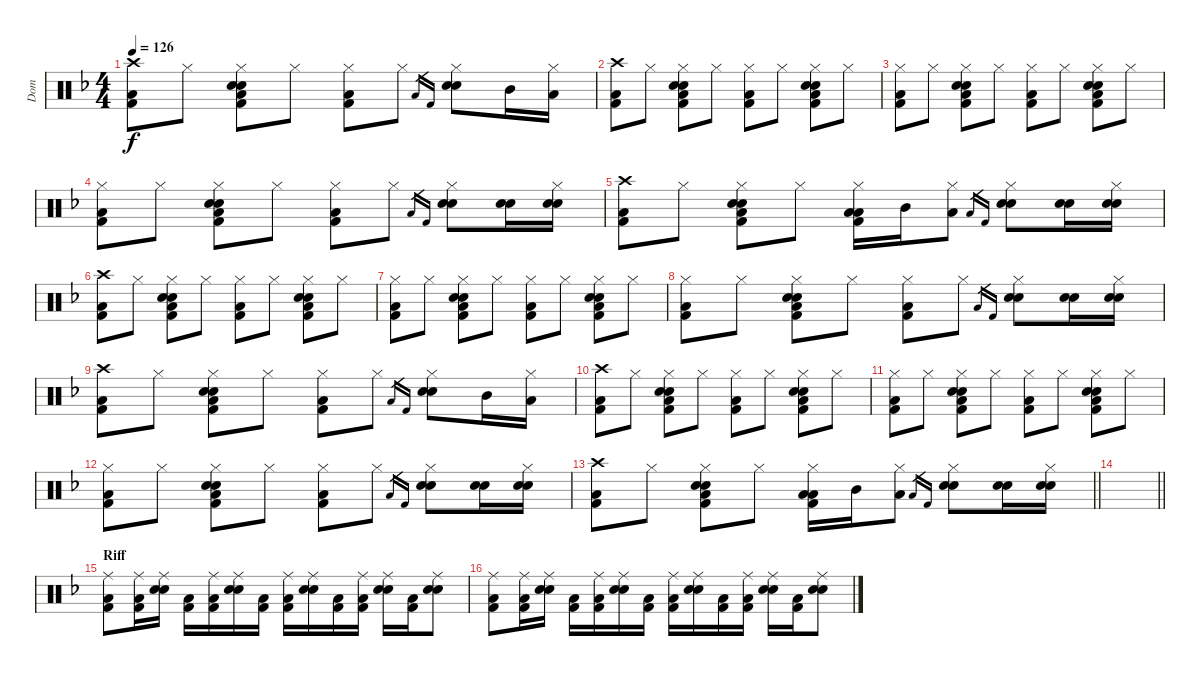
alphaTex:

\track ("Dom" "Dom") {instrument percussion}
\staff {score}
\articulation defaults
\ts (4 4)
\tempo 126
\clef neutral
\ks f
("Crash high (hit)" "Low Floor Tom (hit)" "Kick (hit) 2").8{dy f} "Hi-Hat (closed)".8 ("Hi-Hat (closed)" "Snare (hit) 2" "Electric Snare (hit)" "Low Floor Tom (hit)" "Kick (hit) 2").8 "Hi-Hat (closed)".8 ("Hi-Hat (closed)" "Low Floor Tom (hit)" "Kick (hit) 2").8 "Hi-Hat (closed)".8 "Low Floor Tom (hit)".16{gr} "Kick (hit) 2".16{gr} ("Hi-Hat (closed)" "Snare (hit) 2" "Electric Snare (hit)").8 "Mid Tom (hit)".16 ("Hi-Hat (closed)" "Low Tom (hit)").16 |
("Crash high (hit)" "Low Floor Tom (hit)" "Kick (hit) 2").8 "Hi-Hat (closed)".8 ("Hi-Hat (closed)" "Snare (hit) 2" "Electric Snare (hit)" "Low Floor Tom (hit)" "Kick (hit) 2").8 "Hi-Hat (closed)".8 ("Hi-Hat (closed)" "Low Floor Tom (hit)" "Kick (hit) 2").8 "Hi-Hat (closed)".8 ("Hi-Hat (closed)" "Snare (hit) 2" "Electric Snare (hit)" "Low Floor Tom (hit)" "Kick (hit) 2").8 "Hi-Hat (closed)".8 |
("Hi-Hat (closed)" "Low Floor Tom (hit)" "Kick (hit) 2").8 "Hi-Hat (closed)".8 ("Hi-Hat (closed)" "Snare (hit) 2" "Electric Snare (hit)" "Low Floor Tom (hit)" "Kick (hit) 2").8 "Hi-Hat (closed)".8 ("Hi-Hat (closed)" "Low Floor Tom (hit)" "Kick (hit) 2").8 "Hi-Hat (closed)".8 ("Hi-Hat (closed)" "Snare (hit) 2" "Electric Snare (hit)" "Low Floor Tom (hit)" "Kick (hit) 2").8 "Hi-Hat (closed)".8 |
("Hi-Hat (closed)" "Low Floor Tom (hit)" "Kick (hit) 2").8 "Hi-Hat (closed)".8 ("Hi-Hat (closed)" "Snare (hit) 2" "Electric Snare (hit)" "Low Floor Tom (hit)" "Kick (hit) 2").8 "Hi-Hat (closed)".8 ("Hi-Hat (closed)" "Low Floor Tom (hit)" "Kick (hit) 2").8 "Hi-Hat (closed)".8 "Low Floor Tom (hit)".16{gr} "Kick (hit) 2".16{gr} ("Hi-Hat (closed)" "Snare (hit) 2" "Electric Snare (hit)").8 ("Snare (hit) 2" "Electric Snare (hit)").16 ("Hi-Hat (closed)" "Snare (hit) 2" "Electric Snare (hit)").16 |
("Crash high (hit)" "Low Floor Tom (hit)" "Kick (hit) 2").8 "Hi-Hat (closed)".8 ("Hi-Hat (closed)" "Snare (hit) 2" "Electric Snare (hit)" "Low Floor Tom (hit)" "Kick (hit) 2").8 "Hi-Hat (closed)".8 ("Hi-Hat (closed)" "Low Tom (hit)" "Low Floor Tom (hit)" "Kick (hit) 2").16 "Mid Tom (hit)".16 ("Hi-Hat (closed)" "Low Tom (hit)").8 "Low Floor Tom (hit)".16{gr} "Kick (hit) 2".16{gr} ("Hi-Hat (closed)" "Snare (hit) 2" "Electric Snare (hit)").8 ("Snare (hit) 2" "Electric Snare (hit)").16 ("Hi-Hat (closed)" "Snare (hit) 2" "Electric Snare (hit)").16 |
("Crash high (hit)" "Low Floor Tom (hit)" "Kick (hit) 2").8 "Hi-Hat (closed)".8 ("Hi-Hat (closed)" "Snare (hit) 2" "Electric Snare (hit)" "Low Floor Tom (hit)" "Kick (hit) 2").8 "Hi-Hat (closed)".8 ("Hi-Hat (closed)" "Low Floor Tom (hit)" "Kick (hit) 2").8 "Hi-Hat (closed)".8 ("Hi-Hat (closed)" "Snare (hit) 2" "Electric Snare (hit)" "Low Floor Tom (hit)" "Kick (hit) 2").8 "Hi-Hat (closed)".8 |
("Hi-Hat (closed)" "Low Floor Tom (hit)" "Kick (hit) 2").8 "Hi-Hat (closed)".8 ("Hi-Hat (closed)" "Snare (hit) 2" "Electric Snare (hit)" "Low Floor Tom (hit)" "Kick (hit) 2").8 "Hi-Hat (closed)".8 ("Hi-Hat (closed)" "Low Floor Tom (hit)" "Kick (hit) 2").8 "Hi-Hat (closed)".8 ("Hi-Hat (closed)" "Snare (hit) 2" "Electric Snare (hit)" "Low Floor Tom (hit)" "Kick (hit) 2").8 "Hi-Hat (closed)".8 |
("Hi-Hat (closed)" "Low Floor Tom (hit)" "Kick (hit) 2").8 "Hi-Hat (closed)".8 ("Hi-Hat (closed)" "Snare (hit) 2" "Electric Snare (hit)" "Low Floor Tom (hit)" "Kick (hit) 2").8 "Hi-Hat (closed)".8 ("Hi-Hat (closed)" "Low Floor Tom (hit)" "Kick (hit) 2").8 "Hi-Hat (closed)".8 "Low Floor Tom (hit)".16{gr} "Kick (hit) 2".16{gr} ("Hi-Hat (closed)" "Snare (hit) 2" "Electric Snare (hit)").8 ("Snare (hit) 2" "Electric Snare (hit)").16 ("Hi-Hat (closed)" "Snare (hit) 2" "Electric Snare (hit)").16 |
("Crash high (hit)" "Low Floor Tom (hit)" "Kick (hit) 2").8 "Hi-Hat (closed)".8 ("Hi-Hat (closed)" "Snare (hit) 2" "Electric Snare (hit)" "Low Floor Tom (hit)" "Kick (hit) 2").8 "Hi-Hat (closed)".8 ("Hi-Hat (closed)" "Low Floor Tom (hit)" "Kick (hit) 2").8 "Hi-Hat (closed)".8 "Low Floor Tom (hit)".16{gr} "Kick (hit) 2".16{gr} ("Hi-Hat (closed)" "Snare (hit) 2" "Electric Snare (hit)").8 "Mid Tom (hit)".16 ("Hi-Hat (closed)" "Low Tom (hit)").16 |
("Crash high (hit)" "Low Floor Tom (hit)" "Kick (hit) 2").8 "Hi-Hat (closed)".8 ("Hi-Hat (closed)" "Snare (hit) 2" "Electric Snare (hit)" "Low Floor Tom (hit)" "Kick (hit) 2").8 "Hi-Hat (closed)".8 ("Hi-Hat (closed)" "Low Floor Tom (hit)" "Kick (hit) 2").8 "Hi-Hat (closed)".8 ("Hi-Hat (closed)" "Snare (hit) 2" "Electric Snare (hit)" "Low Floor Tom (hit)" "Kick (hit) 2").8 "Hi-Hat (closed)".8 |
("Hi-Hat (closed)" "Low Floor Tom (hit)" "Kick (hit) 2").8 "Hi-Hat (closed)".8 ("Hi-Hat (closed)" "Snare (hit) 2" "Electric Snare (hit)" "Low Floor Tom (hit)" "Kick (hit) 2").8 "Hi-Hat (closed)".8 ("Hi-Hat (closed)" "Low Floor Tom (hit)" "Kick (hit) 2").8 "Hi-Hat (closed)".8 ("Hi-Hat (closed)" "Snare (hit) 2" "Electric Snare (hit)" "Low Floor Tom (hit)" "Kick (hit) 2").8 "Hi-Hat (closed)".8 |
("Hi-Hat (closed)" "Low Floor Tom (hit)" "Kick (hit) 2").8 "Hi-Hat (closed)".8 ("Hi-Hat (closed)" "Snare (hit) 2" "Electric Snare (hit)" "Low Floor Tom (hit)" "Kick (hit) 2").8 "Hi-Hat (closed)".8 ("Hi-Hat (closed)" "Low Floor Tom (hit)" "Kick (hit) 2").8 "Hi-Hat (closed)".8 "Low Floor Tom (hit)".16{gr} "Kick (hit) 2".16{gr} ("Hi-Hat (closed)" "Snare (hit) 2" "Electric Snare (hit)").8 ("Snare (hit) 2" "Electric Snare (hit)").16 ("Hi-Hat (closed)" "Snare (hit) 2" "Electric Snare (hit)").16 |
\barLineRight lightlight
("Crash high (hit)" "Low Floor Tom (hit)" "Kick (hit) 2").8 "Hi-Hat (closed)".8 ("Hi-Hat (closed)" "Snare (hit) 2" "Electric Snare (hit)" "Low Floor Tom (hit)" "Kick (hit) 2").8 "Hi-Hat (closed)".8 ("Hi-Hat (closed)" "Low Tom (hit)" "Low Floor Tom (hit)" "Kick (hit) 2").16 "Mid Tom (hit)".16 ("Hi-Hat (closed)" "Low Tom (hit)").8 "Low Floor Tom (hit)".16{gr} "Kick (hit) 2".16{gr} ("Hi-Hat (closed)" "Snare (hit) 2" "Electric Snare (hit)").8 ("Snare (hit) 2" "Electric Snare (hit)").16 ("Hi-Hat (closed)" "Snare (hit) 2" "Electric Snare (hit)").16 |
\barLineRight lightlight
|
\section ("" "Riff")
("Ride (middle)" "Low Floor Tom (hit)" "Kick (hit) 2").8 ("Ride (middle)" "Low Floor Tom (hit)" "Kick (hit) 2").16 ("Ride (middle)" "Electric Snare (hit)" "Snare (hit) 2").16 ("Low Floor Tom (hit)" "Kick (hit) 2").16 ("Ride (middle)" "Low Floor Tom (hit)" "Kick (hit) 2").16 ("Ride (middle)" "Electric Snare (hit)" "Snare (hit) 2").16 ("Low Floor Tom (hit)" "Kick (hit) 2").16 ("Ride (middle)" "Low Floor Tom (hit)" "Kick (hit) 2").16 ("Ride (middle)" "Electric Snare (hit)" "Snare (hit) 2").16 ("Low Floor Tom (hit)" "Kick (hit) 2").16 ("Ride (middle)" "Low Floor Tom (hit)" "Kick (hit) 2").16 ("Ride (middle)" "Electric Snare (hit)" "Snare (hit) 2").16 ("Low Floor Tom (hit)" "Kick (hit) 2").16 ("Ride (middle)" "Electric Snare (hit)" "Snare (hit) 2").8 |
("Ride (middle)" "Low Floor Tom (hit)" "Kick (hit) 2").8 ("Ride (middle)" "Low Floor Tom (hit)" "Kick (hit) 2").16 ("Ride (middle)" "Electric Snare (hit)" "Snare (hit) 2").16 ("Low Floor Tom (hit)" "Kick (hit) 2").16 ("Ride (middle)" "Low Floor Tom (hit)" "Kick (hit) 2").16 ("Ride (middle)" "Electric Snare (hit)" "Snare (hit) 2").16 ("Low Floor Tom (hit)" "Kick (hit) 2").16 ("Ride (middle)" "Low Floor Tom (hit)" "Kick (hit) 2").16 ("Ride (middle)" "Electric Snare (hit)" "Snare (hit) 2").16 ("Low Floor Tom (hit)" "Kick (hit) 2").16 ("Ride (middle)" "Low Floor Tom (hit)" "Kick (hit) 2").16 ("Ride (middle)" "Electric Snare (hit)" "Snare (hit) 2").16 ("Low Floor Tom (hit)" "Kick (hit) 2").16 ("Ride (middle)" "Electric Snare (hit)" "Snare (hit) 2").8
